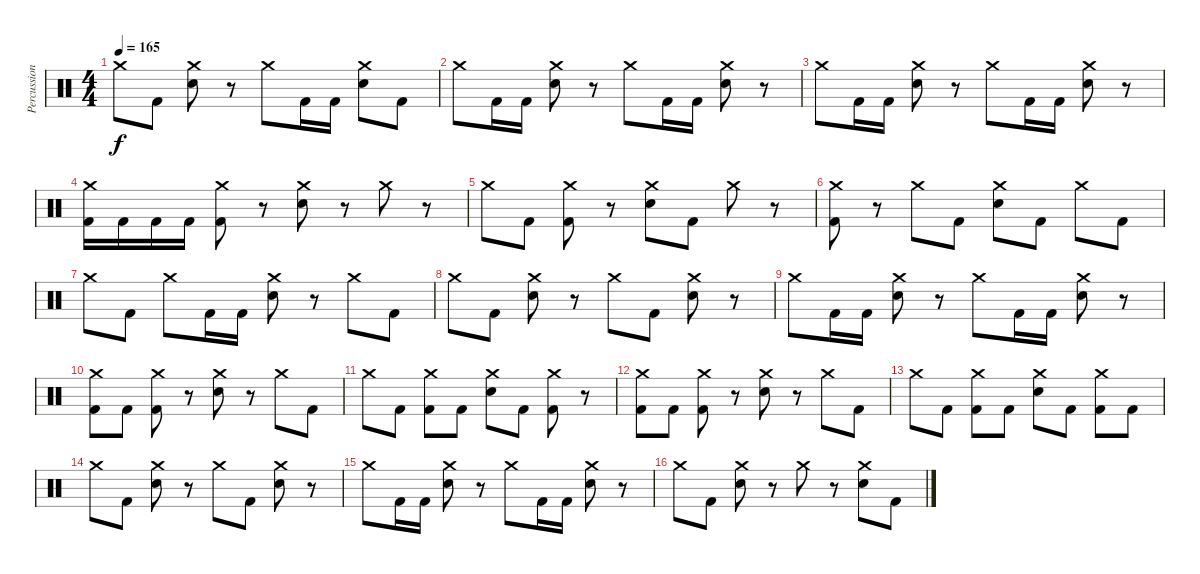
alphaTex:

\track ("Percussion" "Percussion") {instrument percussion}
\staff {score}
\articulation defaults
\ts (4 4)
\tempo 165
\clef neutral
\ks c "Crash medium (hit)".8{dy f} "Kick (hit) 2".8
("Crash medium (hit)" "Electric Snare (hit)").8 r.8 "Crash medium (hit)".8 "Kick (hit) 2".16 "Kick (hit) 2".16 ("Crash medium (hit)" "Electric Snare (hit)").8 "Kick (hit) 2".8 |
"Crash medium (hit)".8 "Kick (hit) 2".16 "Kick (hit) 2".16 ("Crash medium (hit)" "Electric Snare (hit)").8 r.8 "Crash medium (hit)".8 "Kick (hit) 2".16 "Kick (hit) 2".16 ("Crash medium (hit)" "Electric Snare (hit)").8 r.8 |
"Crash medium (hit)".8 "Kick (hit) 2".16 "Kick (hit) 2".16 ("Crash medium (hit)" "Electric Snare (hit)").8 r.8 "Crash medium (hit)".8 "Kick (hit) 2".16 "Kick (hit) 2".16 ("Crash medium (hit)" "Electric Snare (hit)").8 r.8 |
("Crash medium (hit)" "Kick (hit) 2").16 "Kick (hit) 2".16 "Kick (hit) 2".16 "Kick (hit) 2".16 ("Crash medium (hit)" "Kick (hit) 2").8 r.8 ("Crash medium (hit)" "Electric Snare (hit)").8 r.8 "Crash medium (hit)".8 r.8 |
"Crash medium (hit)".8 "Kick (hit) 2".8 ("Crash medium (hit)" "Kick (hit) 2").8 r.8 ("Crash medium (hit)" "Electric Snare (hit)").8 "Kick (hit) 2".8 "Crash medium (hit)".8 r.8 |
("Crash medium (hit)" "Kick (hit) 2").8 r.8 "Crash medium (hit)".8 "Kick (hit) 2".8 ("Crash medium (hit)" "Electric Snare (hit)").8 "Kick (hit) 2".8 "Crash medium (hit)".8 "Kick (hit) 2".8 |
"Crash medium (hit)".8 "Kick (hit) 2".8 "Crash medium (hit)".8 "Kick (hit) 2".16 "Kick (hit) 2".16 ("Crash medium (hit)" "Electric Snare (hit)").8 r.8 "Crash medium (hit)".8 "Kick (hit) 2".8 |
"Crash medium (hit)".8 "Kick (hit) 2".8 ("Crash medium (hit)" "Electric Snare (hit)").8 r.8 "Crash medium (hit)".8 "Kick (hit) 2".8 ("Crash medium (hit)" "Electric Snare (hit)").8 r.8 |
"Crash medium (hit)".8 "Kick (hit) 2".16 "Kick (hit) 2".16 ("Crash medium (hit)" "Electric Snare (hit)").8 r.8 "Crash medium (hit)".8 "Kick (hit) 2".16 "Kick (hit) 2".16 ("Crash medium (hit)" "Electric Snare (hit)").8 r.8 |
("Crash medium (hit)" "Kick (hit) 2").8 "Kick (hit) 2".8 ("Crash medium (hit)" "Kick (hit) 2").8 r.8 ("Crash medium (hit)" "Electric Snare (hit)").8 r.8 "Crash medium (hit)".8 "Kick (hit) 2".8 |
"Crash medium (hit)".8 "Kick (hit) 2".8 ("Crash medium (hit)" "Kick (hit) 2").8 "Kick (hit) 2".8 ("Crash medium (hit)" "Electric Snare (hit)").8 "Kick (hit) 2".8 ("Crash medium (hit)" "Kick (hit) 2").8 r.8 |
("Crash medium (hit)" "Kick (hit) 2").8 "Kick (hit) 2".8 ("Crash medium (hit)" "Kick (hit) 2").8 r.8 ("Crash medium (hit)" "Electric Snare (hit)").8 r.8 "Crash medium (hit)".8 "Kick (hit) 2".8 |
"Crash medium (hit)".8 "Kick (hit) 2".8 ("Crash medium (hit)" "Kick (hit) 2").8 "Kick (hit) 2".8 ("Crash medium (hit)" "Electric Snare (hit)").8 "Kick (hit) 2".8 ("Crash medium (hit)" "Kick (hit) 2").8 "Kick (hit) 2".8 |
"Crash medium (hit)".8 "Kick (hit) 2".8 ("Crash medium (hit)" "Electric Snare (hit)").8 r.8 "Crash medium (hit)".8 "Kick (hit) 2".8 ("Crash medium (hit)" "Electric Snare (hit)").8 r.8 |
"Crash medium (hit)".8 "Kick (hit) 2".16 "Kick (hit) 2".16 ("Crash medium (hit)" "Electric Snare (hit)").8 r.8 "Crash medium (hit)".8 "Kick (hit) 2".16 "Kick (hit) 2".16 ("Crash medium (hit)" "Electric Snare (hit)").8 r.8 |
"Crash medium (hit)".8 "Kick (hit) 2".8 ("Crash medium (hit)" "Electric Snare (hit)").8 r.8 "Crash medium (hit)".8 r.8 ("Crash medium (hit)" "Electric Snare (hit)").8 "Kick (hit) 2".8
